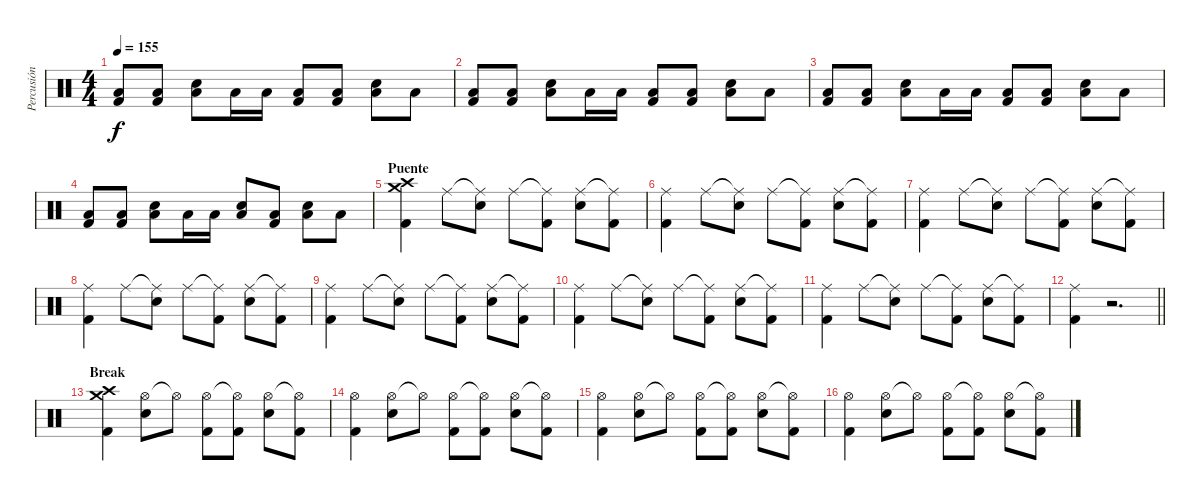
\track ("Percusión" "Percusión") {instrument percussion}
\staff {score}
\articulation defaults
\ts (4 4)
\tempo 155
\clef neutral
\ks c
("Low Floor Tom (hit)" "Kick (hit) 2").8{dy f} ("Low Floor Tom (hit)" "Kick (hit) 2").8 ("Low Floor Tom (hit)" "Electric Snare (hit)").8 "Low Floor Tom (hit)".16 "Low Floor Tom (hit)".16 ("Low Floor Tom (hit)" "Kick (hit) 2").8 ("Low Floor Tom (hit)" "Kick (hit) 2").8 ("Low Floor Tom (hit)" "Electric Snare (hit)").8 "Low Floor Tom (hit)".8 |
("Low Floor Tom (hit)" "Kick (hit) 2").8 ("Low Floor Tom (hit)" "Kick (hit) 2").8 ("Low Floor Tom (hit)" "Electric Snare (hit)").8 "Low Floor Tom (hit)".16 "Low Floor Tom (hit)".16 ("Low Floor Tom (hit)" "Kick (hit) 2").8 ("Low Floor Tom (hit)" "Kick (hit) 2").8 ("Low Floor Tom (hit)" "Electric Snare (hit)").8 "Low Floor Tom (hit)".8 |
("Low Floor Tom (hit)" "Kick (hit) 2").8 ("Low Floor Tom (hit)" "Kick (hit) 2").8 ("Low Floor Tom (hit)" "Electric Snare (hit)").8 "Low Floor Tom (hit)".16 "Low Floor Tom (hit)".16 ("Low Floor Tom (hit)" "Kick (hit) 2").8 ("Low Floor Tom (hit)" "Kick (hit) 2").8 ("Low Floor Tom (hit)" "Electric Snare (hit)").8 "Low Floor Tom (hit)".8 |
("Low Floor Tom (hit)" "Kick (hit) 2").8 ("Low Floor Tom (hit)" "Kick (hit) 2").8 ("Low Floor Tom (hit)" "Electric Snare (hit)").8 "Low Floor Tom (hit)".16 "Low Floor Tom (hit)".16 ("Low Floor Tom (hit)" "Electric Snare (hit)").8 ("Low Floor Tom (hit)" "Kick (hit) 2").8 ("Low Floor Tom (hit)" "Electric Snare (hit)").8 "Low Floor Tom (hit)".8 |
\section ("" "Puente")
("Crash high (hit)" "Crash medium (hit)" "Kick (hit) 2").4 "Ride (middle)".8 ("Ride (middle)"{t} "Electric Snare (hit)").8 "Ride (middle)".8 ("Ride (middle)"{t} "Kick (hit) 2").8 ("Ride (middle)" "Electric Snare (hit)").8 ("Ride (middle)"{t} "Kick (hit) 2").8 |
("Ride (middle)" "Kick (hit) 2").4 "Ride (middle)".8 ("Ride (middle)"{t} "Electric Snare (hit)").8 "Ride (middle)".8 ("Ride (middle)"{t} "Kick (hit) 2").8 ("Ride (middle)" "Electric Snare (hit)").8 ("Ride (middle)"{t} "Kick (hit) 2").8 |
("Ride (middle)" "Kick (hit) 2").4 "Ride (middle)".8 ("Ride (middle)"{t} "Electric Snare (hit)").8 "Ride (middle)".8 ("Ride (middle)"{t} "Kick (hit) 2").8 ("Ride (middle)" "Electric Snare (hit)").8 ("Ride (middle)"{t} "Kick (hit) 2").8 |
("Ride (middle)" "Kick (hit) 2").4 "Ride (middle)".8 ("Ride (middle)"{t} "Electric Snare (hit)").8 "Ride (middle)".8 ("Ride (middle)"{t} "Kick (hit) 2").8 ("Ride (middle)" "Electric Snare (hit)").8 ("Ride (middle)"{t} "Kick (hit) 2").8 |
("Ride (middle)" "Kick (hit) 2").4 "Ride (middle)".8 ("Ride (middle)"{t} "Electric Snare (hit)").8 "Ride (middle)".8 ("Ride (middle)"{t} "Kick (hit) 2").8 ("Ride (middle)" "Electric Snare (hit)").8 ("Ride (middle)"{t} "Kick (hit) 2").8 |
("Ride (middle)" "Kick (hit) 2").4 "Ride (middle)".8 ("Ride (middle)"{t} "Electric Snare (hit)").8 "Ride (middle)".8 ("Ride (middle)"{t} "Kick (hit) 2").8 ("Ride (middle)" "Electric Snare (hit)").8 ("Ride (middle)"{t} "Kick (hit) 2").8 |
("Ride (middle)" "Kick (hit) 2").4 "Ride (middle)".8 ("Ride (middle)"{t} "Electric Snare (hit)").8 "Ride (middle)".8 ("Ride (middle)"{t} "Kick (hit) 2").8 ("Ride (middle)" "Electric Snare (hit)").8 ("Ride (middle)"{t} "Kick (hit) 2").8 |
\barLineRight lightlight
("Ride (middle)" "Kick (hit) 2").4 r.2{d} |
\section ("" "Break")
("Crash high (hit)" "Crash medium (hit)" "Kick (hit) 2").4 ("Hi-Hat (open)" "Electric Snare (hit)").8 "Hi-Hat (open)"{t}.8 ("Hi-Hat (open)" "Kick (hit) 2").8 ("Hi-Hat (open)"{t} "Kick (hit) 2").8 ("Hi-Hat (open)" "Electric Snare (hit)").8 ("Hi-Hat (open)"{t} "Kick (hit) 2").8 |
("Hi-Hat (open)" "Kick (hit) 2").4 ("Hi-Hat (open)" "Electric Snare (hit)").8 "Hi-Hat (open)"{t}.8 ("Hi-Hat (open)" "Kick (hit) 2").8 ("Hi-Hat (open)"{t} "Kick (hit) 2").8 ("Hi-Hat (open)" "Electric Snare (hit)").8 ("Hi-Hat (open)"{t} "Kick (hit) 2").8 |
("Hi-Hat (open)" "Kick (hit) 2").4 ("Hi-Hat (open)" "Electric Snare (hit)").8 "Hi-Hat (open)"{t}.8 ("Hi-Hat (open)" "Kick (hit) 2").8 ("Hi-Hat (open)"{t} "Kick (hit) 2").8 ("Hi-Hat (open)" "Electric Snare (hit)").8 ("Hi-Hat (open)"{t} "Kick (hit) 2").8 |
("Hi-Hat (open)" "Kick (hit) 2").4 ("Hi-Hat (open)" "Electric Snare (hit)").8 "Hi-Hat (open)"{t}.8 ("Hi-Hat (open)" "Kick (hit) 2").8 ("Hi-Hat (open)"{t} "Kick (hit) 2").8 ("Hi-Hat (open)" "Electric Snare (hit)").8 ("Hi-Hat (open)"{t} "Kick (hit) 2").8
